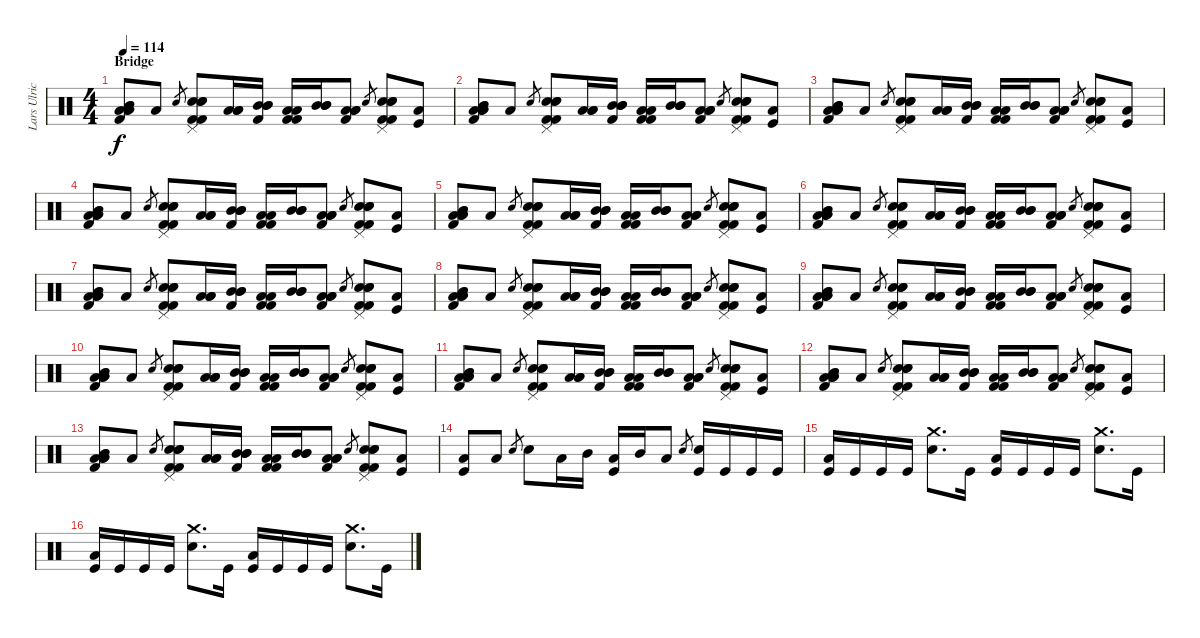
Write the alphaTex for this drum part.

\track ("Lars Ulrich" "Lars Ulric") {instrument percussion}
\staff {score}
\articulation defaults
\ts (4 4)
\section ("" "Bridge")
\tempo 114
\clef neutral
\ks c
("Mid Tom (hit)" "Low Floor Tom (hit)" "Kick (hit) 2" "Mid Tom (hit)" "Low Floor Tom (hit)" "Low Floor Tom (hit)").8{dy f} "Low Floor Tom (hit)".8 "Electric Snare (hit)".8{gr} ("Pedal Hi-Hat (hit)" "Electric Snare (hit)" "Electric Snare (hit)" "Electric Snare (hit)" "Kick (hit) 2" "Kick (hit) 2").8 ("Low Floor Tom (hit)" "Low Floor Tom (hit)" "Low Floor Tom (hit)").16 ("Kick (hit) 2" "Mid Tom (hit)" "Mid Tom (hit)" "Mid Tom (hit)").16 ("Kick (hit) 2" "Low Floor Tom (hit)" "Low Floor Tom (hit)" "Kick (hit) 2").16 ("Mid Tom (hit)" "Mid Tom (hit)" "Mid Tom (hit)").16 ("Kick (hit) 2" "Low Floor Tom (hit)" "Low Floor Tom (hit)" "Low Floor Tom (hit)").8 "Electric Snare (hit)".8{gr} ("Pedal Hi-Hat (hit)" "Electric Snare (hit)" "Electric Snare (hit)" "Electric Snare (hit)" "Kick (hit) 2" "Kick (hit) 2").8 ("Kick (hit)" "Low Floor Tom (hit)").8 |
("Mid Tom (hit)" "Low Floor Tom (hit)" "Kick (hit) 2" "Mid Tom (hit)" "Low Floor Tom (hit)" "Low Floor Tom (hit)").8 "Low Floor Tom (hit)".8 "Electric Snare (hit)".8{gr} ("Pedal Hi-Hat (hit)" "Electric Snare (hit)" "Electric Snare (hit)" "Electric Snare (hit)" "Kick (hit) 2" "Kick (hit) 2").8 ("Low Floor Tom (hit)" "Low Floor Tom (hit)" "Low Floor Tom (hit)").16 ("Kick (hit) 2" "Mid Tom (hit)" "Mid Tom (hit)" "Mid Tom (hit)").16 ("Kick (hit) 2" "Low Floor Tom (hit)" "Low Floor Tom (hit)" "Kick (hit) 2").16 ("Mid Tom (hit)" "Mid Tom (hit)" "Mid Tom (hit)").16 ("Kick (hit) 2" "Low Floor Tom (hit)" "Low Floor Tom (hit)" "Low Floor Tom (hit)").8 "Electric Snare (hit)".8{gr} ("Pedal Hi-Hat (hit)" "Electric Snare (hit)" "Electric Snare (hit)" "Electric Snare (hit)" "Kick (hit) 2" "Kick (hit) 2").8 ("Kick (hit)" "Low Floor Tom (hit)").8 |
("Mid Tom (hit)" "Low Floor Tom (hit)" "Kick (hit) 2" "Mid Tom (hit)" "Low Floor Tom (hit)" "Low Floor Tom (hit)").8 "Low Floor Tom (hit)".8 "Electric Snare (hit)".8{gr} ("Pedal Hi-Hat (hit)" "Electric Snare (hit)" "Electric Snare (hit)" "Electric Snare (hit)" "Kick (hit) 2" "Kick (hit) 2").8 ("Low Floor Tom (hit)" "Low Floor Tom (hit)" "Low Floor Tom (hit)").16 ("Kick (hit) 2" "Mid Tom (hit)" "Mid Tom (hit)" "Mid Tom (hit)").16 ("Kick (hit) 2" "Low Floor Tom (hit)" "Low Floor Tom (hit)" "Kick (hit) 2").16 ("Mid Tom (hit)" "Mid Tom (hit)" "Mid Tom (hit)").16 ("Kick (hit) 2" "Low Floor Tom (hit)" "Low Floor Tom (hit)" "Low Floor Tom (hit)").8 "Electric Snare (hit)".8{gr} ("Pedal Hi-Hat (hit)" "Electric Snare (hit)" "Electric Snare (hit)" "Electric Snare (hit)" "Kick (hit) 2" "Kick (hit) 2").8 ("Kick (hit)" "Low Floor Tom (hit)").8 |
("Mid Tom (hit)" "Low Floor Tom (hit)" "Kick (hit) 2" "Mid Tom (hit)" "Low Floor Tom (hit)" "Low Floor Tom (hit)").8 "Low Floor Tom (hit)".8 "Electric Snare (hit)".8{gr} ("Pedal Hi-Hat (hit)" "Electric Snare (hit)" "Electric Snare (hit)" "Electric Snare (hit)" "Kick (hit) 2" "Kick (hit) 2").8 ("Low Floor Tom (hit)" "Low Floor Tom (hit)" "Low Floor Tom (hit)").16 ("Kick (hit) 2" "Mid Tom (hit)" "Mid Tom (hit)" "Mid Tom (hit)").16 ("Kick (hit) 2" "Low Floor Tom (hit)" "Low Floor Tom (hit)" "Kick (hit) 2").16 ("Mid Tom (hit)" "Mid Tom (hit)" "Mid Tom (hit)").16 ("Kick (hit) 2" "Low Floor Tom (hit)" "Low Floor Tom (hit)" "Low Floor Tom (hit)").8 "Electric Snare (hit)".8{gr} ("Pedal Hi-Hat (hit)" "Electric Snare (hit)" "Electric Snare (hit)" "Electric Snare (hit)" "Kick (hit) 2" "Kick (hit) 2").8 ("Kick (hit)" "Low Floor Tom (hit)").8 |
("Mid Tom (hit)" "Low Floor Tom (hit)" "Kick (hit) 2" "Mid Tom (hit)" "Low Floor Tom (hit)" "Low Floor Tom (hit)").8 "Low Floor Tom (hit)".8 "Electric Snare (hit)".8{gr} ("Pedal Hi-Hat (hit)" "Electric Snare (hit)" "Electric Snare (hit)" "Electric Snare (hit)" "Kick (hit) 2" "Kick (hit) 2").8 ("Low Floor Tom (hit)" "Low Floor Tom (hit)" "Low Floor Tom (hit)").16 ("Kick (hit) 2" "Mid Tom (hit)" "Mid Tom (hit)" "Mid Tom (hit)").16 ("Kick (hit) 2" "Low Floor Tom (hit)" "Low Floor Tom (hit)" "Kick (hit) 2").16 ("Mid Tom (hit)" "Mid Tom (hit)" "Mid Tom (hit)").16 ("Kick (hit) 2" "Low Floor Tom (hit)" "Low Floor Tom (hit)" "Low Floor Tom (hit)").8 "Electric Snare (hit)".8{gr} ("Pedal Hi-Hat (hit)" "Electric Snare (hit)" "Electric Snare (hit)" "Electric Snare (hit)" "Kick (hit) 2" "Kick (hit) 2").8 ("Kick (hit)" "Low Floor Tom (hit)").8 |
("Mid Tom (hit)" "Low Floor Tom (hit)" "Kick (hit) 2" "Mid Tom (hit)" "Low Floor Tom (hit)" "Low Floor Tom (hit)").8 "Low Floor Tom (hit)".8 "Electric Snare (hit)".8{gr} ("Pedal Hi-Hat (hit)" "Electric Snare (hit)" "Electric Snare (hit)" "Electric Snare (hit)" "Kick (hit) 2" "Kick (hit) 2").8 ("Low Floor Tom (hit)" "Low Floor Tom (hit)" "Low Floor Tom (hit)").16 ("Kick (hit) 2" "Mid Tom (hit)" "Mid Tom (hit)" "Mid Tom (hit)").16 ("Kick (hit) 2" "Low Floor Tom (hit)" "Low Floor Tom (hit)" "Kick (hit) 2").16 ("Mid Tom (hit)" "Mid Tom (hit)" "Mid Tom (hit)").16 ("Kick (hit) 2" "Low Floor Tom (hit)" "Low Floor Tom (hit)" "Low Floor Tom (hit)").8 "Electric Snare (hit)".8{gr} ("Pedal Hi-Hat (hit)" "Electric Snare (hit)" "Electric Snare (hit)" "Electric Snare (hit)" "Kick (hit) 2" "Kick (hit) 2").8 ("Kick (hit)" "Low Floor Tom (hit)").8 |
("Mid Tom (hit)" "Low Floor Tom (hit)" "Kick (hit) 2" "Mid Tom (hit)" "Low Floor Tom (hit)" "Low Floor Tom (hit)").8 "Low Floor Tom (hit)".8 "Electric Snare (hit)".8{gr} ("Pedal Hi-Hat (hit)" "Electric Snare (hit)" "Electric Snare (hit)" "Electric Snare (hit)" "Kick (hit) 2" "Kick (hit) 2").8 ("Low Floor Tom (hit)" "Low Floor Tom (hit)" "Low Floor Tom (hit)").16 ("Kick (hit) 2" "Mid Tom (hit)" "Mid Tom (hit)" "Mid Tom (hit)").16 ("Kick (hit) 2" "Low Floor Tom (hit)" "Low Floor Tom (hit)" "Kick (hit) 2").16 ("Mid Tom (hit)" "Mid Tom (hit)" "Mid Tom (hit)").16 ("Kick (hit) 2" "Low Floor Tom (hit)" "Low Floor Tom (hit)" "Low Floor Tom (hit)").8 "Electric Snare (hit)".8{gr} ("Pedal Hi-Hat (hit)" "Electric Snare (hit)" "Electric Snare (hit)" "Electric Snare (hit)" "Kick (hit) 2" "Kick (hit) 2").8 ("Kick (hit)" "Low Floor Tom (hit)").8 |
("Mid Tom (hit)" "Low Floor Tom (hit)" "Kick (hit) 2" "Mid Tom (hit)" "Low Floor Tom (hit)" "Low Floor Tom (hit)").8 "Low Floor Tom (hit)".8 "Electric Snare (hit)".8{gr} ("Pedal Hi-Hat (hit)" "Electric Snare (hit)" "Electric Snare (hit)" "Electric Snare (hit)" "Kick (hit) 2" "Kick (hit) 2").8 ("Low Floor Tom (hit)" "Low Floor Tom (hit)" "Low Floor Tom (hit)").16 ("Kick (hit) 2" "Mid Tom (hit)" "Mid Tom (hit)" "Mid Tom (hit)").16 ("Kick (hit) 2" "Low Floor Tom (hit)" "Low Floor Tom (hit)" "Kick (hit) 2").16 ("Mid Tom (hit)" "Mid Tom (hit)" "Mid Tom (hit)").16 ("Kick (hit) 2" "Low Floor Tom (hit)" "Low Floor Tom (hit)" "Low Floor Tom (hit)").8 "Electric Snare (hit)".8{gr} ("Pedal Hi-Hat (hit)" "Electric Snare (hit)" "Electric Snare (hit)" "Electric Snare (hit)" "Kick (hit) 2" "Kick (hit) 2").8 ("Kick (hit)" "Low Floor Tom (hit)").8 |
("Mid Tom (hit)" "Low Floor Tom (hit)" "Kick (hit) 2" "Mid Tom (hit)" "Low Floor Tom (hit)" "Low Floor Tom (hit)").8 "Low Floor Tom (hit)".8 "Electric Snare (hit)".8{gr} ("Pedal Hi-Hat (hit)" "Electric Snare (hit)" "Electric Snare (hit)" "Electric Snare (hit)" "Kick (hit) 2" "Kick (hit) 2").8 ("Low Floor Tom (hit)" "Low Floor Tom (hit)" "Low Floor Tom (hit)").16 ("Kick (hit) 2" "Mid Tom (hit)" "Mid Tom (hit)" "Mid Tom (hit)").16 ("Kick (hit) 2" "Low Floor Tom (hit)" "Low Floor Tom (hit)" "Kick (hit) 2").16 ("Mid Tom (hit)" "Mid Tom (hit)" "Mid Tom (hit)").16 ("Kick (hit) 2" "Low Floor Tom (hit)" "Low Floor Tom (hit)" "Low Floor Tom (hit)").8 "Electric Snare (hit)".8{gr} ("Pedal Hi-Hat (hit)" "Electric Snare (hit)" "Electric Snare (hit)" "Electric Snare (hit)" "Kick (hit) 2" "Kick (hit) 2").8 ("Kick (hit)" "Low Floor Tom (hit)").8 |
("Mid Tom (hit)" "Low Floor Tom (hit)" "Kick (hit) 2" "Mid Tom (hit)" "Low Floor Tom (hit)" "Low Floor Tom (hit)").8 "Low Floor Tom (hit)".8 "Electric Snare (hit)".8{gr} ("Pedal Hi-Hat (hit)" "Electric Snare (hit)" "Electric Snare (hit)" "Electric Snare (hit)" "Kick (hit) 2" "Kick (hit) 2").8 ("Low Floor Tom (hit)" "Low Floor Tom (hit)" "Low Floor Tom (hit)").16 ("Kick (hit) 2" "Mid Tom (hit)" "Mid Tom (hit)" "Mid Tom (hit)").16 ("Kick (hit) 2" "Low Floor Tom (hit)" "Low Floor Tom (hit)" "Kick (hit) 2").16 ("Mid Tom (hit)" "Mid Tom (hit)" "Mid Tom (hit)").16 ("Kick (hit) 2" "Low Floor Tom (hit)" "Low Floor Tom (hit)" "Low Floor Tom (hit)").8 "Electric Snare (hit)".8{gr} ("Pedal Hi-Hat (hit)" "Electric Snare (hit)" "Electric Snare (hit)" "Electric Snare (hit)" "Kick (hit) 2" "Kick (hit) 2").8 ("Kick (hit)" "Low Floor Tom (hit)").8 |
("Mid Tom (hit)" "Low Floor Tom (hit)" "Kick (hit) 2" "Mid Tom (hit)" "Low Floor Tom (hit)" "Low Floor Tom (hit)").8 "Low Floor Tom (hit)".8 "Electric Snare (hit)".8{gr} ("Pedal Hi-Hat (hit)" "Electric Snare (hit)" "Electric Snare (hit)" "Electric Snare (hit)" "Kick (hit) 2" "Kick (hit) 2").8 ("Low Floor Tom (hit)" "Low Floor Tom (hit)" "Low Floor Tom (hit)").16 ("Kick (hit) 2" "Mid Tom (hit)" "Mid Tom (hit)" "Mid Tom (hit)").16 ("Kick (hit) 2" "Low Floor Tom (hit)" "Low Floor Tom (hit)" "Kick (hit) 2").16 ("Mid Tom (hit)" "Mid Tom (hit)" "Mid Tom (hit)").16 ("Kick (hit) 2" "Low Floor Tom (hit)" "Low Floor Tom (hit)" "Low Floor Tom (hit)").8 "Electric Snare (hit)".8{gr} ("Pedal Hi-Hat (hit)" "Electric Snare (hit)" "Electric Snare (hit)" "Electric Snare (hit)" "Kick (hit) 2" "Kick (hit) 2").8 ("Kick (hit)" "Low Floor Tom (hit)").8 |
("Mid Tom (hit)" "Low Floor Tom (hit)" "Kick (hit) 2" "Mid Tom (hit)" "Low Floor Tom (hit)" "Low Floor Tom (hit)").8 "Low Floor Tom (hit)".8 "Electric Snare (hit)".8{gr} ("Pedal Hi-Hat (hit)" "Electric Snare (hit)" "Electric Snare (hit)" "Electric Snare (hit)" "Kick (hit) 2" "Kick (hit) 2").8 ("Low Floor Tom (hit)" "Low Floor Tom (hit)" "Low Floor Tom (hit)").16 ("Kick (hit) 2" "Mid Tom (hit)" "Mid Tom (hit)" "Mid Tom (hit)").16 ("Kick (hit) 2" "Low Floor Tom (hit)" "Low Floor Tom (hit)" "Kick (hit) 2").16 ("Mid Tom (hit)" "Mid Tom (hit)" "Mid Tom (hit)").16 ("Kick (hit) 2" "Low Floor Tom (hit)" "Low Floor Tom (hit)" "Low Floor Tom (hit)").8 "Electric Snare (hit)".8{gr} ("Pedal Hi-Hat (hit)" "Electric Snare (hit)" "Electric Snare (hit)" "Electric Snare (hit)" "Kick (hit) 2" "Kick (hit) 2").8 ("Kick (hit)" "Low Floor Tom (hit)").8 |
("Mid Tom (hit)" "Low Floor Tom (hit)" "Kick (hit) 2" "Mid Tom (hit)" "Low Floor Tom (hit)" "Low Floor Tom (hit)").8 "Low Floor Tom (hit)".8 "Electric Snare (hit)".8{gr} ("Pedal Hi-Hat (hit)" "Electric Snare (hit)" "Electric Snare (hit)" "Electric Snare (hit)" "Kick (hit) 2" "Kick (hit) 2").8 ("Low Floor Tom (hit)" "Low Floor Tom (hit)" "Low Floor Tom (hit)").16 ("Kick (hit) 2" "Mid Tom (hit)" "Mid Tom (hit)" "Mid Tom (hit)").16 ("Kick (hit) 2" "Low Floor Tom (hit)" "Low Floor Tom (hit)" "Kick (hit) 2").16 ("Mid Tom (hit)" "Mid Tom (hit)" "Mid Tom (hit)").16 ("Kick (hit) 2" "Low Floor Tom (hit)" "Low Floor Tom (hit)" "Low Floor Tom (hit)").8 "Electric Snare (hit)".8{gr} ("Pedal Hi-Hat (hit)" "Electric Snare (hit)" "Electric Snare (hit)" "Electric Snare (hit)" "Kick (hit) 2" "Kick (hit) 2").8 ("Kick (hit)" "Low Floor Tom (hit)").8 |
("Kick (hit)" "Low Floor Tom (hit)").8 "Low Floor Tom (hit)".8 "Electric Snare (hit)".8{gr} "Electric Snare (hit)".8 "Low Floor Tom (hit)".16 "Mid Tom (hit)".16 ("Kick (hit)" "Low Floor Tom (hit)").16 "Mid Tom (hit)".16 "Low Floor Tom (hit)".8 "Electric Snare (hit)".8{gr} ("Kick (hit)" "Electric Snare (hit)").16 "Kick (hit)".16 "Kick (hit)".16 "Kick (hit)".16 |
("Kick (hit)" "Low Floor Tom (hit)").16 "Kick (hit)".16 "Kick (hit)".16 "Kick (hit)".16 ("Electric Snare (hit)" "Crash medium (hit)").8{d} "Kick (hit)".16 ("Kick (hit)" "Low Floor Tom (hit)").16 "Kick (hit)".16 "Kick (hit)".16 "Kick (hit)".16 ("Electric Snare (hit)" "Crash medium (hit)").8{d} "Kick (hit)".16 |
("Kick (hit)" "Low Floor Tom (hit)").16 "Kick (hit)".16 "Kick (hit)".16 "Kick (hit)".16 ("Electric Snare (hit)" "Crash medium (hit)").8{d} "Kick (hit)".16 ("Kick (hit)" "Low Floor Tom (hit)").16 "Kick (hit)".16 "Kick (hit)".16 "Kick (hit)".16 ("Electric Snare (hit)" "Crash medium (hit)").8{d} "Kick (hit)".16
